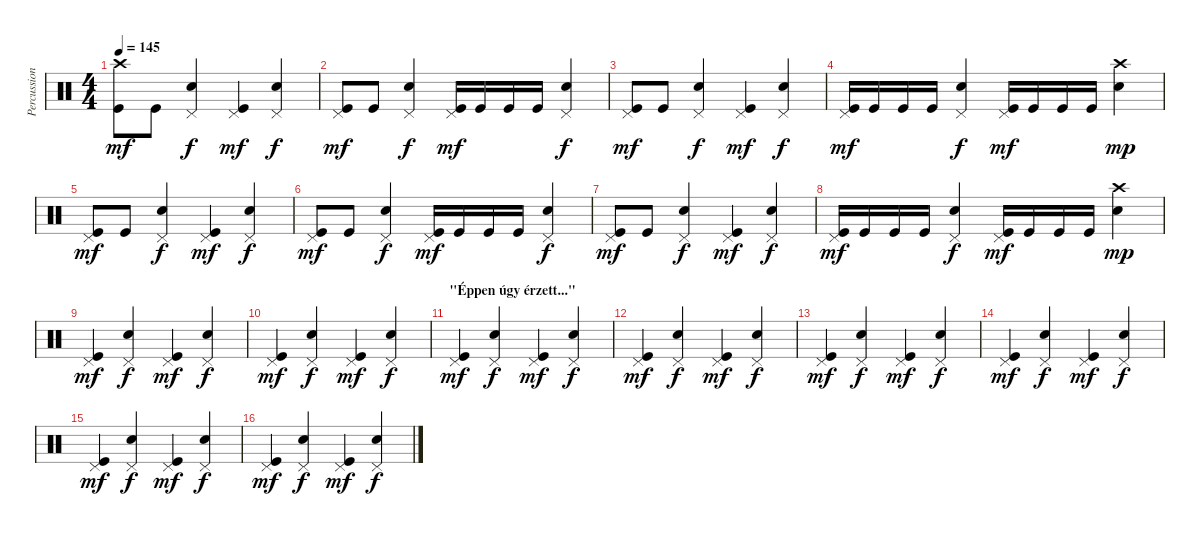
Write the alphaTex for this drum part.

\track ("Percussion" "Percussion") {instrument percussion}
\staff {score}
\articulation defaults
\ts (4 4)
\tempo 145
\clef neutral
\ks c
("Crash high (hit)" "Kick (hit)").8{dy mf} "Kick (hit)".8 ("Pedal Hi-Hat (hit)" "Electric Snare (hit)").4{dy f} ("Pedal Hi-Hat (hit)" "Kick (hit)").4{dy mf} ("Pedal Hi-Hat (hit)" "Electric Snare (hit)").4{dy f} |
("Pedal Hi-Hat (hit)" "Kick (hit)").8{dy mf} "Kick (hit)".8 ("Pedal Hi-Hat (hit)" "Electric Snare (hit)").4{dy f} ("Pedal Hi-Hat (hit)" "Kick (hit)").16{dy mf} "Kick (hit)".16 "Kick (hit)".16 "Kick (hit)".16 ("Pedal Hi-Hat (hit)" "Electric Snare (hit)").4{dy f} |
("Pedal Hi-Hat (hit)" "Kick (hit)").8{dy mf} "Kick (hit)".8 ("Pedal Hi-Hat (hit)" "Electric Snare (hit)").4{dy f} ("Pedal Hi-Hat (hit)" "Kick (hit)").4{dy mf} ("Pedal Hi-Hat (hit)" "Electric Snare (hit)").4{dy f} |
("Pedal Hi-Hat (hit)" "Kick (hit)").16{dy mf} "Kick (hit)".16 "Kick (hit)".16 "Kick (hit)".16 ("Pedal Hi-Hat (hit)" "Electric Snare (hit)").4{dy f} ("Pedal Hi-Hat (hit)" "Kick (hit)").16{dy mf} "Kick (hit)".16 "Kick (hit)".16 "Kick (hit)".16 ("Crash high (hit)" "Electric Snare (hit)").4{dy mp} |
("Pedal Hi-Hat (hit)" "Kick (hit)").8{dy mf} "Kick (hit)".8 ("Pedal Hi-Hat (hit)" "Electric Snare (hit)").4{dy f} ("Pedal Hi-Hat (hit)" "Kick (hit)").4{dy mf} ("Pedal Hi-Hat (hit)" "Electric Snare (hit)").4{dy f} |
("Pedal Hi-Hat (hit)" "Kick (hit)").8{dy mf} "Kick (hit)".8 ("Pedal Hi-Hat (hit)" "Electric Snare (hit)").4{dy f} ("Pedal Hi-Hat (hit)" "Kick (hit)").16{dy mf} "Kick (hit)".16 "Kick (hit)".16 "Kick (hit)".16 ("Pedal Hi-Hat (hit)" "Electric Snare (hit)").4{dy f} |
("Pedal Hi-Hat (hit)" "Kick (hit)").8{dy mf} "Kick (hit)".8 ("Pedal Hi-Hat (hit)" "Electric Snare (hit)").4{dy f} ("Pedal Hi-Hat (hit)" "Kick (hit)").4{dy mf} ("Pedal Hi-Hat (hit)" "Electric Snare (hit)").4{dy f} |
("Pedal Hi-Hat (hit)" "Kick (hit)").16{dy mf} "Kick (hit)".16 "Kick (hit)".16 "Kick (hit)".16 ("Pedal Hi-Hat (hit)" "Electric Snare (hit)").4{dy f} ("Pedal Hi-Hat (hit)" "Kick (hit)").16{dy mf} "Kick (hit)".16 "Kick (hit)".16 "Kick (hit)".16 ("Crash high (hit)" "Electric Snare (hit)").4{dy mp} |
("Pedal Hi-Hat (hit)" "Kick (hit)").4{dy mf} ("Pedal Hi-Hat (hit)" "Electric Snare (hit)").4{dy f} ("Pedal Hi-Hat (hit)" "Kick (hit)").4{dy mf} ("Pedal Hi-Hat (hit)" "Electric Snare (hit)").4{dy f} |
("Pedal Hi-Hat (hit)" "Kick (hit)").4{dy mf} ("Pedal Hi-Hat (hit)" "Electric Snare (hit)").4{dy f} ("Pedal Hi-Hat (hit)" "Kick (hit)").4{dy mf} ("Pedal Hi-Hat (hit)" "Electric Snare (hit)").4{dy f} |
\section ("" "\"Éppen úgy érzett...\"")
("Pedal Hi-Hat (hit)" "Kick (hit)").4{dy mf} ("Pedal Hi-Hat (hit)" "Electric Snare (hit)").4{dy f} ("Pedal Hi-Hat (hit)" "Kick (hit)").4{dy mf} ("Pedal Hi-Hat (hit)" "Electric Snare (hit)").4{dy f} |
("Pedal Hi-Hat (hit)" "Kick (hit)").4{dy mf} ("Pedal Hi-Hat (hit)" "Electric Snare (hit)").4{dy f} ("Pedal Hi-Hat (hit)" "Kick (hit)").4{dy mf} ("Pedal Hi-Hat (hit)" "Electric Snare (hit)").4{dy f} |
("Pedal Hi-Hat (hit)" "Kick (hit)").4{dy mf} ("Pedal Hi-Hat (hit)" "Electric Snare (hit)").4{dy f} ("Pedal Hi-Hat (hit)" "Kick (hit)").4{dy mf} ("Pedal Hi-Hat (hit)" "Electric Snare (hit)").4{dy f} |
("Pedal Hi-Hat (hit)" "Kick (hit)").4{dy mf} ("Pedal Hi-Hat (hit)" "Electric Snare (hit)").4{dy f} ("Pedal Hi-Hat (hit)" "Kick (hit)").4{dy mf} ("Pedal Hi-Hat (hit)" "Electric Snare (hit)").4{dy f} |
("Pedal Hi-Hat (hit)" "Kick (hit)").4{dy mf} ("Pedal Hi-Hat (hit)" "Electric Snare (hit)").4{dy f} ("Pedal Hi-Hat (hit)" "Kick (hit)").4{dy mf} ("Pedal Hi-Hat (hit)" "Electric Snare (hit)").4{dy f} |
("Pedal Hi-Hat (hit)" "Kick (hit)").4{dy mf} ("Pedal Hi-Hat (hit)" "Electric Snare (hit)").4{dy f} ("Pedal Hi-Hat (hit)" "Kick (hit)").4{dy mf} ("Pedal Hi-Hat (hit)" "Electric Snare (hit)").4{dy f}
